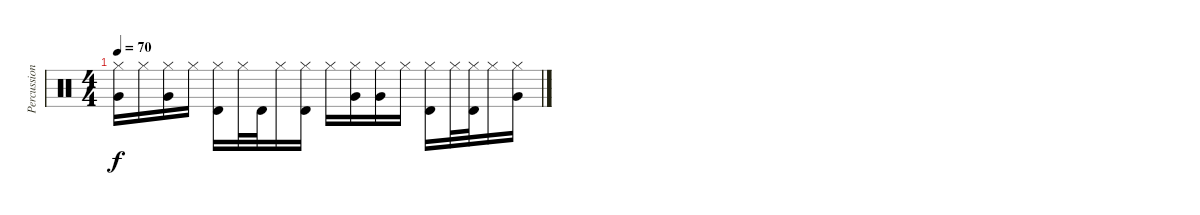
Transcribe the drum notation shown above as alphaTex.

\track ("Percussioni" "Percussion") {instrument percussion}
\staff {score}
\articulation defaults
\ts (4 4)
\tempo 70
\clef neutral
\ks c
("Hi-Hat (closed)" "Very Low Tom (hit)").16{dy f} "Hi-Hat (closed)".16 ("Hi-Hat (closed)" "Very Low Tom (hit)").16 "Hi-Hat (closed)".16 ("Hi-Hat (closed)" "Timbale high (hit)").16 "Hi-Hat (closed)".32 "Timbale high (hit)".32 "Hi-Hat (closed)".16 ("Hi-Hat (closed)" "Timbale high (hit)").16 "Hi-Hat (closed)".16 ("Hi-Hat (closed)" "Very Low Tom (hit)").16 ("Hi-Hat (closed)" "Very Low Tom (hit)").16 "Hi-Hat (closed)".16 ("Hi-Hat (closed)" "Timbale high (hit)").16 "Hi-Hat (closed)".32 ("Hi-Hat (closed)" "Timbale high (hit)").32 "Hi-Hat (closed)".16 ("Hi-Hat (closed)" "Very Low Tom (hit)").16
